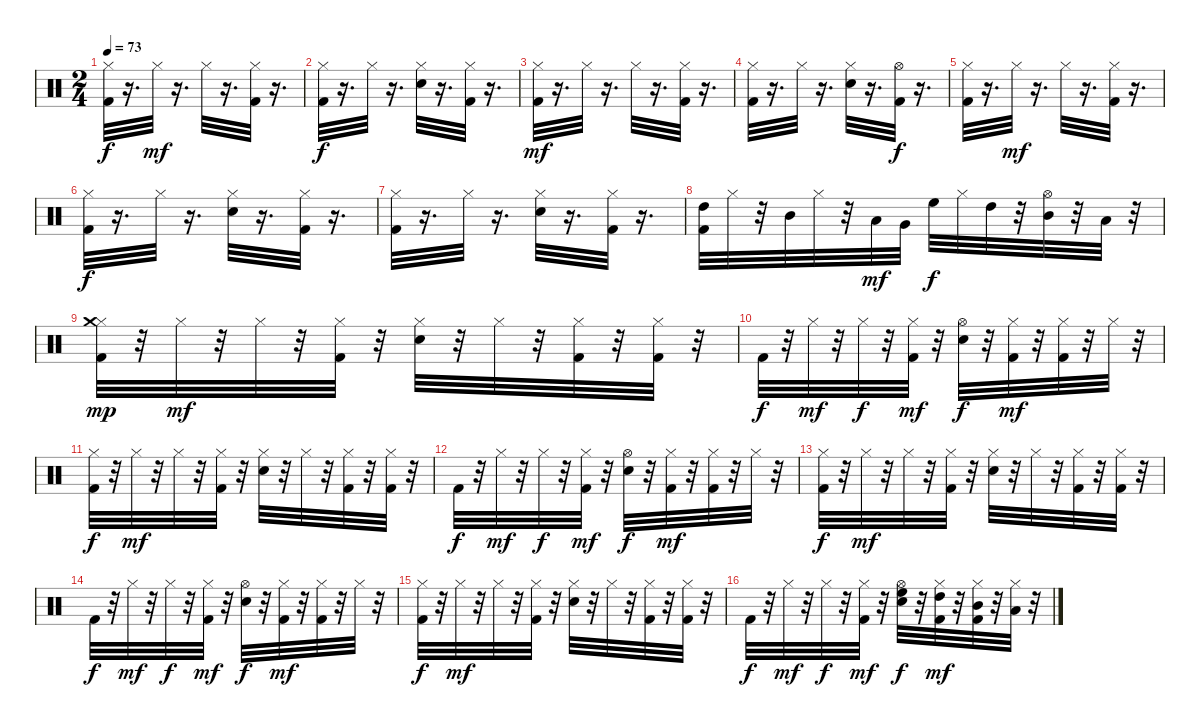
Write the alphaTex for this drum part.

\track "" {instrument percussion}
\staff {score}
\articulation defaults
\ts (2 4)
\tempo 73
\clef neutral
\ks c
("Hi-Hat (closed)" "Kick (hit) 2").32{dy f} r.16{d} "Hi-Hat (closed)".32{dy mf} r.16{d} "Hi-Hat (closed)".32 r.16{d} ("Hi-Hat (closed)" "Kick (hit) 2").32 r.16{d} |
("Hi-Hat (closed)" "Kick (hit) 2").32{dy f} r.16{d} "Hi-Hat (closed)".32 r.16{d} ("Hi-Hat (closed)" "Snare (hit) 2").32 r.16{d} ("Kick (hit) 2" "Hi-Hat (closed)").32 r.16{d} |
("Kick (hit) 2" "Hi-Hat (closed)").32{dy mf} r.16{d} "Hi-Hat (closed)".32 r.16{d} "Hi-Hat (closed)".32 r.16{d} ("Hi-Hat (closed)" "Kick (hit) 2").32 r.16{d} |
("Hi-Hat (closed)" "Kick (hit) 2").32 r.16{d} "Hi-Hat (closed)".32 r.16{d} ("Hi-Hat (closed)" "Snare (hit) 2").32 r.16{d} ("Hi-Hat (open)" "Kick (hit) 2").32{dy f} r.16{d} |
("Hi-Hat (closed)" "Kick (hit) 2").32 r.16{d} "Hi-Hat (closed)".32{dy mf} r.16{d} "Hi-Hat (closed)".32 r.16{d} ("Hi-Hat (closed)" "Kick (hit) 2").32 r.16{d} |
("Hi-Hat (closed)" "Kick (hit) 2").32{dy f} r.16{d} "Hi-Hat (closed)".32 r.16{d} ("Hi-Hat (closed)" "Snare (hit) 2").32 r.16{d} ("Kick (hit) 2" "Hi-Hat (closed)").32 r.16{d} |
("Hi-Hat (closed)" "Kick (hit) 2").32 r.16{d} "Hi-Hat (closed)".32 r.16{d} ("Hi-Hat (closed)" "Snare (hit) 2").32 r.16{d} ("Kick (hit) 2" "Hi-Hat (closed)").32 r.16{d} |
("High Tom (hit)" "Kick (hit) 2").32 "Hi-Hat (closed)".32 r.32 "Mid Tom (hit)".32 "Hi-Hat (closed)".32 r.32 "Low Tom (hit)".32{dy mf} "Very Low Tom (hit)".32 "High Floor Tom (hit)".32{dy f} "Hi-Hat (closed)".32 "High Tom (hit)".32 r.32 ("Mid Tom (hit)" "Hi-Hat (open)").32 r.32 "Low Tom (hit)".32 r.32 |
("Hi-Hat (closed)" "Kick (hit) 2" "Crash medium (hit)").32{dy mp} r.32 "Hi-Hat (closed)".32{dy mf} r.32 "Hi-Hat (closed)".32 r.32 ("Hi-Hat (closed)" "Kick (hit) 2").32 r.32 ("Hi-Hat (closed)" "Snare (hit) 2").32 r.32 "Hi-Hat (closed)".32 r.32 ("Kick (hit) 2" "Hi-Hat (closed)").32 r.32 ("Kick (hit) 2" "Hi-Hat (closed)").32 r.32 |
"Kick (hit) 2".32{dy f} r.32 "Hi-Hat (closed)".32{dy mf} r.32 "Hi-Hat (closed)".32{dy f} r.32 ("Kick (hit) 2" "Hi-Hat (closed)").32{dy mf} r.32 ("Snare (hit) 2" "Hi-Hat (open)").32{dy f} r.32 ("Kick (hit) 2" "Hi-Hat (closed)").32{dy mf} r.32 ("Hi-Hat (closed)" "Kick (hit) 2").32 r.32 "Hi-Hat (closed)".32 r.32 |
("Hi-Hat (closed)" "Kick (hit) 2").32{dy f} r.32 "Hi-Hat (closed)".32{dy mf} r.32 "Hi-Hat (closed)".32 r.32 ("Hi-Hat (closed)" "Kick (hit) 2").32 r.32 ("Hi-Hat (closed)" "Snare (hit) 2").32 r.32 "Hi-Hat (closed)".32 r.32 ("Kick (hit) 2" "Hi-Hat (closed)").32 r.32 ("Kick (hit) 2" "Hi-Hat (closed)").32 r.32 |
"Kick (hit) 2".32{dy f} r.32 "Hi-Hat (closed)".32{dy mf} r.32 "Hi-Hat (closed)".32{dy f} r.32 ("Kick (hit) 2" "Hi-Hat (closed)").32{dy mf} r.32 ("Snare (hit) 2" "Hi-Hat (open)").32{dy f} r.32 ("Kick (hit) 2" "Hi-Hat (closed)").32{dy mf} r.32 ("Hi-Hat (closed)" "Kick (hit) 2").32 r.32 "Hi-Hat (closed)".32 r.32 |
("Hi-Hat (closed)" "Kick (hit) 2").32{dy f} r.32 "Hi-Hat (closed)".32{dy mf} r.32 "Hi-Hat (closed)".32 r.32 ("Hi-Hat (closed)" "Kick (hit) 2").32 r.32 ("Hi-Hat (closed)" "Snare (hit) 2").32 r.32 "Hi-Hat (closed)".32 r.32 ("Kick (hit) 2" "Hi-Hat (closed)").32 r.32 ("Kick (hit) 2" "Hi-Hat (closed)").32 r.32 |
"Kick (hit) 2".32{dy f} r.32 "Hi-Hat (closed)".32{dy mf} r.32 "Hi-Hat (closed)".32{dy f} r.32 ("Kick (hit) 2" "Hi-Hat (closed)").32{dy mf} r.32 ("Snare (hit) 2" "Hi-Hat (open)").32{dy f} r.32 ("Kick (hit) 2" "Hi-Hat (closed)").32{dy mf} r.32 ("Hi-Hat (closed)" "Kick (hit) 2").32 r.32 "Hi-Hat (closed)".32 r.32 |
("Hi-Hat (closed)" "Kick (hit) 2").32{dy f} r.32 "Hi-Hat (closed)".32{dy mf} r.32 "Hi-Hat (closed)".32 r.32 ("Hi-Hat (closed)" "Kick (hit) 2").32 r.32 ("Hi-Hat (closed)" "Snare (hit) 2").32 r.32 "Hi-Hat (closed)".32 r.32 ("Kick (hit) 2" "Hi-Hat (closed)").32 r.32 ("Kick (hit) 2" "Hi-Hat (closed)").32 r.32 |
"Kick (hit) 2".32{dy f} r.32 "Hi-Hat (closed)".32{dy mf} r.32 "Hi-Hat (closed)".32{dy f} r.32 ("Kick (hit) 2" "Hi-Hat (closed)").32{dy mf} r.32 ("Snare (hit) 2" "Hi-Hat (open)" "High Floor Tom (hit)").32{dy f} r.32 ("Kick (hit) 2" "Hi-Hat (closed)" "High Tom (hit)").32{dy mf} r.32 ("Hi-Hat (closed)" "Kick (hit) 2" "Mid Tom (hit)").32 r.32 ("Low Tom (hit)" "Hi-Hat (closed)").32 r.32
